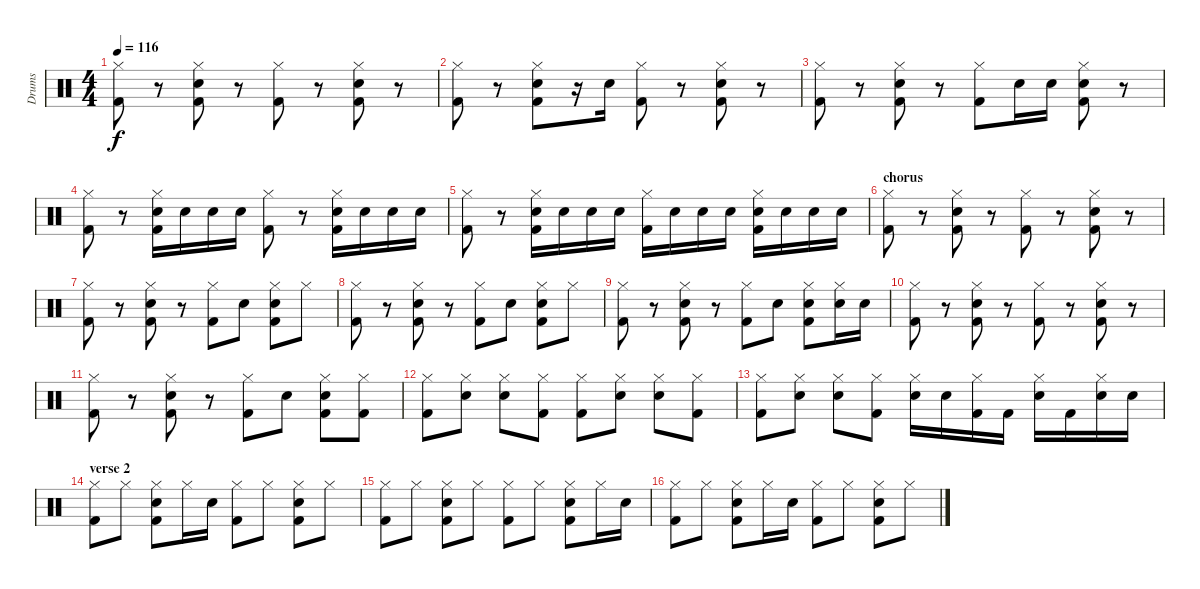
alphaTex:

\track ("Drums" "Drums") {instrument percussion}
\staff {score}
\articulation defaults
\ts (4 4)
\tempo 116
\clef neutral
\ks c
("Hi-Hat (closed)" "Kick (hit) 2").8{dy f} r.8 ("Hi-Hat (closed)" "Snare (hit) 2" "Kick (hit) 2").8 r.8 ("Hi-Hat (closed)" "Kick (hit) 2").8 r.8 ("Hi-Hat (closed)" "Snare (hit) 2" "Kick (hit) 2").8 r.8 |
("Hi-Hat (closed)" "Kick (hit) 2").8 r.8 ("Hi-Hat (closed)" "Snare (hit) 2" "Kick (hit) 2").8 r.16 "Snare (hit) 2".16 ("Hi-Hat (closed)" "Kick (hit) 2").8 r.8 ("Hi-Hat (closed)" "Snare (hit) 2" "Kick (hit) 2").8 r.8 |
("Hi-Hat (closed)" "Kick (hit) 2").8 r.8 ("Hi-Hat (closed)" "Snare (hit) 2" "Kick (hit) 2").8 r.8 ("Hi-Hat (closed)" "Kick (hit) 2").8 "Snare (hit) 2".16 "Snare (hit) 2".16 ("Hi-Hat (closed)" "Snare (hit) 2" "Kick (hit) 2").8 r.8 |
("Hi-Hat (closed)" "Kick (hit) 2").8 r.8 ("Hi-Hat (closed)" "Snare (hit) 2" "Kick (hit) 2").16 "Snare (hit) 2".16 "Snare (hit) 2".16 "Snare (hit) 2".16 ("Hi-Hat (closed)" "Kick (hit) 2").8 r.8 ("Hi-Hat (closed)" "Snare (hit) 2" "Kick (hit) 2").16 "Snare (hit) 2".16 "Snare (hit) 2".16 "Snare (hit) 2".16 |
("Hi-Hat (closed)" "Kick (hit) 2").8 r.8 ("Hi-Hat (closed)" "Snare (hit) 2" "Kick (hit) 2").16 "Snare (hit) 2".16 "Snare (hit) 2".16 "Snare (hit) 2".16 ("Hi-Hat (closed)" "Kick (hit) 2").16 "Snare (hit) 2".16 "Snare (hit) 2".16 "Snare (hit) 2".16 ("Hi-Hat (closed)" "Snare (hit) 2" "Kick (hit) 2").16 "Snare (hit) 2".16 "Snare (hit) 2".16 "Snare (hit) 2".16 |
\section ("" "chorus")
("Hi-Hat (closed)" "Kick (hit) 2").8 r.8 ("Hi-Hat (closed)" "Snare (hit) 2" "Kick (hit) 2").8 r.8 ("Hi-Hat (closed)" "Kick (hit) 2").8 r.8 ("Hi-Hat (closed)" "Snare (hit) 2" "Kick (hit) 2").8 r.8 |
("Hi-Hat (closed)" "Kick (hit) 2").8 r.8 ("Hi-Hat (closed)" "Snare (hit) 2" "Kick (hit) 2").8 r.8 ("Hi-Hat (closed)" "Kick (hit) 2").8 "Snare (hit) 2".8 ("Hi-Hat (closed)" "Snare (hit) 2" "Kick (hit) 2").8 "Hi-Hat (closed)".8 |
("Hi-Hat (closed)" "Kick (hit) 2").8 r.8 ("Hi-Hat (closed)" "Snare (hit) 2" "Kick (hit) 2").8 r.8 ("Hi-Hat (closed)" "Kick (hit) 2").8 "Snare (hit) 2".8 ("Hi-Hat (closed)" "Snare (hit) 2" "Kick (hit) 2").8 "Hi-Hat (closed)".8 |
("Hi-Hat (closed)" "Kick (hit) 2").8 r.8 ("Hi-Hat (closed)" "Snare (hit) 2" "Kick (hit) 2").8 r.8 ("Hi-Hat (closed)" "Kick (hit) 2").8 "Snare (hit) 2".8 ("Hi-Hat (closed)" "Snare (hit) 2" "Kick (hit) 2").8 ("Hi-Hat (closed)" "Snare (hit) 2").16 "Snare (hit) 2".16 |
("Hi-Hat (closed)" "Kick (hit) 2").8 r.8 ("Hi-Hat (closed)" "Snare (hit) 2" "Kick (hit) 2").8 r.8 ("Hi-Hat (closed)" "Kick (hit) 2").8 r.8 ("Hi-Hat (closed)" "Snare (hit) 2" "Kick (hit) 2").8 r.8 |
("Hi-Hat (closed)" "Kick (hit) 2").8 r.8 ("Hi-Hat (closed)" "Snare (hit) 2" "Kick (hit) 2").8 r.8 ("Hi-Hat (closed)" "Kick (hit) 2").8 "Snare (hit) 2".8 ("Hi-Hat (closed)" "Snare (hit) 2" "Kick (hit) 2").8 ("Hi-Hat (closed)" "Kick (hit) 2").8 |
("Hi-Hat (closed)" "Kick (hit) 2").8 ("Hi-Hat (closed)" "Snare (hit) 2").8 ("Hi-Hat (closed)" "Snare (hit) 2").8 ("Hi-Hat (closed)" "Kick (hit) 2").8 ("Hi-Hat (closed)" "Kick (hit) 2").8 ("Hi-Hat (closed)" "Snare (hit) 2").8 ("Hi-Hat (closed)" "Snare (hit) 2").8 ("Hi-Hat (closed)" "Kick (hit) 2").8 |
("Hi-Hat (closed)" "Kick (hit) 2").8 ("Hi-Hat (closed)" "Snare (hit) 2").8 ("Hi-Hat (closed)" "Snare (hit) 2").8 ("Hi-Hat (closed)" "Kick (hit) 2").8 ("Hi-Hat (closed)" "Snare (hit) 2").16 "Snare (hit) 2".16 ("Hi-Hat (closed)" "Kick (hit) 2").16 "Kick (hit) 2".16 ("Hi-Hat (closed)" "Snare (hit) 2").16 "Kick (hit) 2".16 ("Hi-Hat (closed)" "Snare (hit) 2").16 "Snare (hit) 2".16 |
\section ("" "verse 2")
("Hi-Hat (closed)" "Kick (hit) 2").8 "Hi-Hat (closed)".8 ("Hi-Hat (closed)" "Snare (hit) 2" "Kick (hit) 2").8 "Hi-Hat (closed)".16 "Snare (hit) 2".16 ("Hi-Hat (closed)" "Kick (hit) 2").8 "Hi-Hat (closed)".8 ("Hi-Hat (closed)" "Snare (hit) 2" "Kick (hit) 2").8 "Hi-Hat (closed)".8 |
("Hi-Hat (closed)" "Kick (hit) 2").8 "Hi-Hat (closed)".8 ("Hi-Hat (closed)" "Snare (hit) 2" "Kick (hit) 2").8 "Hi-Hat (closed)".8 ("Hi-Hat (closed)" "Kick (hit) 2").8 "Hi-Hat (closed)".8 ("Hi-Hat (closed)" "Snare (hit) 2" "Kick (hit) 2").8 "Hi-Hat (closed)".16 "Snare (hit) 2".16 |
("Hi-Hat (closed)" "Kick (hit) 2").8 "Hi-Hat (closed)".8 ("Hi-Hat (closed)" "Snare (hit) 2" "Kick (hit) 2").8 "Hi-Hat (closed)".16 "Snare (hit) 2".16 ("Hi-Hat (closed)" "Kick (hit) 2").8 "Hi-Hat (closed)".8 ("Hi-Hat (closed)" "Snare (hit) 2" "Kick (hit) 2").8 "Hi-Hat (closed)".8
